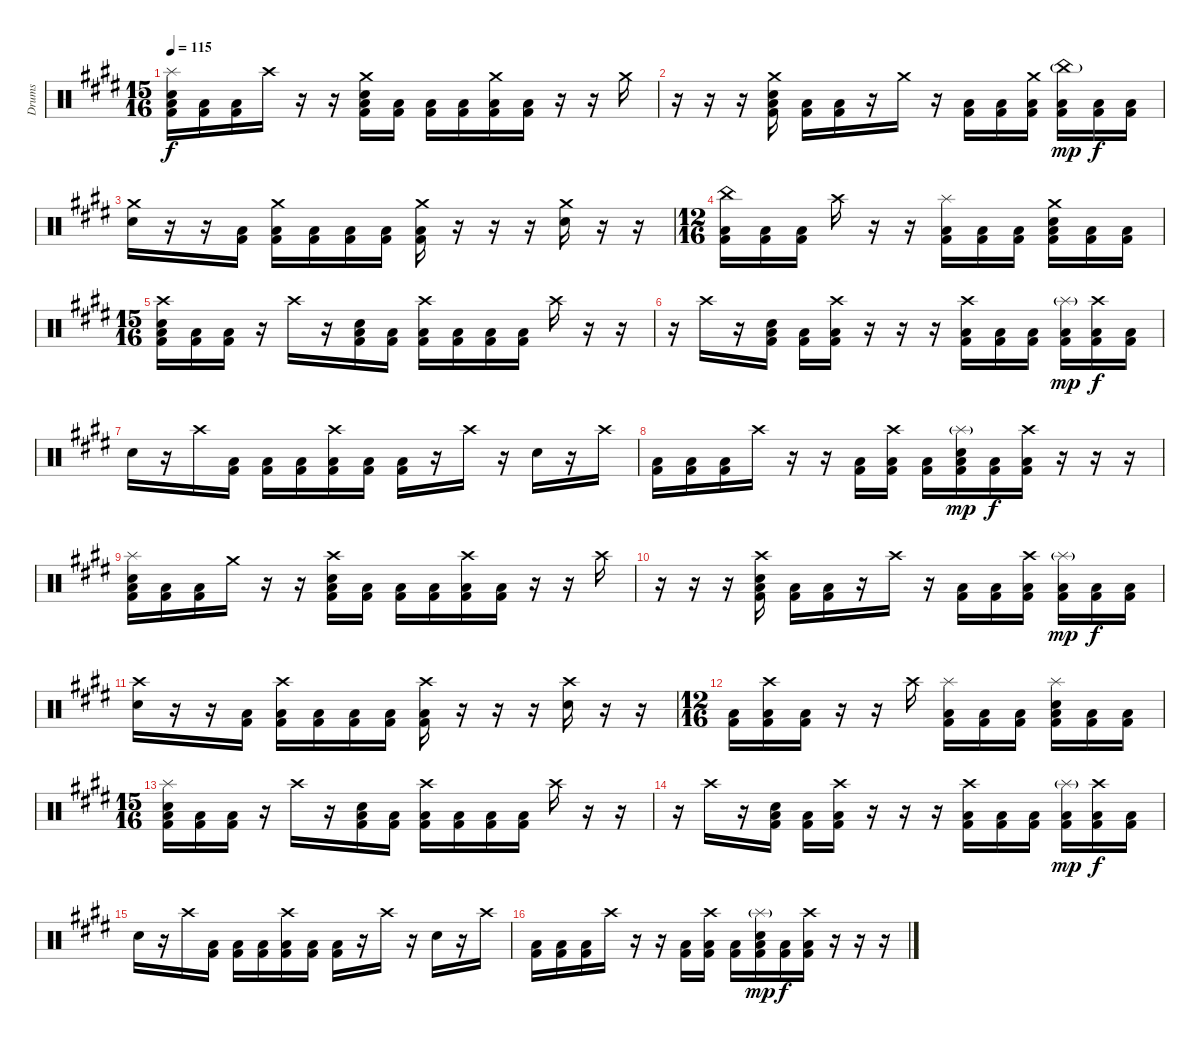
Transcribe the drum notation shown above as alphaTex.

\track ("Drums" "Drums") {instrument percussion}
\staff {score}
\articulation defaults
\ts (15 16)
\tempo 115
\clef neutral
\ks e
("Splash (hit)" "Snare (hit) 2" "Low Floor Tom (hit)" "Kick (hit) 2").16{dy f} ("Low Floor Tom (hit)" "Kick (hit) 2").16 ("Low Floor Tom (hit)" "Kick (hit) 2").16 "Crash high (hit)".16 r.16 r.16 ("Crash medium (hit)" "Snare (hit) 2" "Low Floor Tom (hit)" "Kick (hit) 2").16 ("Low Floor Tom (hit)" "Kick (hit) 2").16 ("Low Floor Tom (hit)" "Kick (hit) 2").16 ("Low Floor Tom (hit)" "Kick (hit) 2").16 ("Crash medium (hit)" "Low Floor Tom (hit)" "Kick (hit) 2").16 ("Low Floor Tom (hit)" "Kick (hit) 2").16 r.16 r.16 "Crash medium (hit)".16 |
r.16 r.16 r.16 ("Crash medium (hit)" "Snare (hit) 2" "Low Floor Tom (hit)" "Kick (hit) 2").16 ("Low Floor Tom (hit)" "Kick (hit) 2").16 ("Low Floor Tom (hit)" "Kick (hit) 2").16 r.16 "Crash medium (hit)".16 r.16 ("Low Floor Tom (hit)" "Kick (hit) 2").16 ("Low Floor Tom (hit)" "Kick (hit) 2").16 ("Crash medium (hit)" "Low Floor Tom (hit)" "Kick (hit) 2").16 ("China (hit)"{g} "Low Floor Tom (hit)" "Kick (hit) 2").16{dy mp} ("Low Floor Tom (hit)" "Kick (hit) 2").16{dy f} ("Low Floor Tom (hit)" "Kick (hit) 2").16 |
("Crash medium (hit)" "Snare (hit) 2").16 r.16 r.16 ("Low Floor Tom (hit)" "Kick (hit) 2").16 ("Crash medium (hit)" "Low Floor Tom (hit)" "Kick (hit) 2").16 ("Low Floor Tom (hit)" "Kick (hit) 2").16 ("Low Floor Tom (hit)" "Kick (hit) 2").16 ("Low Floor Tom (hit)" "Kick (hit) 2").16 ("Crash medium (hit)" "Low Floor Tom (hit)" "Kick (hit) 2").16 r.16 r.16 r.16 ("Crash medium (hit)" "Snare (hit) 2").16 r.16 r.16 |
\ts (12 16)
("China (hit)" "Low Floor Tom (hit)" "Kick (hit) 2").16 ("Low Floor Tom (hit)" "Kick (hit) 2").16 ("Low Floor Tom (hit)" "Kick (hit) 2").16 "Crash high (hit)".16 r.16 r.16 ("Splash (hit)" "Low Floor Tom (hit)" "Kick (hit) 2").16 ("Low Floor Tom (hit)" "Kick (hit) 2").16 ("Low Floor Tom (hit)" "Kick (hit) 2").16 ("Crash medium (hit)" "Snare (hit) 2" "Low Floor Tom (hit)" "Kick (hit) 2").16 ("Low Floor Tom (hit)" "Kick (hit) 2").16 ("Low Floor Tom (hit)" "Kick (hit) 2").16 |
\ts (15 16)
("Crash high (hit)" "Snare (hit) 2" "Low Floor Tom (hit)" "Kick (hit) 2").16 ("Low Floor Tom (hit)" "Kick (hit) 2").16 ("Low Floor Tom (hit)" "Kick (hit) 2").16 r.16 "Crash high (hit)".16 r.16 ("Snare (hit) 2" "Low Floor Tom (hit)" "Kick (hit) 2").16 ("Low Floor Tom (hit)" "Kick (hit) 2").16 ("Crash high (hit)" "Low Floor Tom (hit)" "Kick (hit) 2").16 ("Low Floor Tom (hit)" "Kick (hit) 2").16 ("Low Floor Tom (hit)" "Kick (hit) 2").16 ("Low Floor Tom (hit)" "Kick (hit) 2").16 "Crash high (hit)".16 r.16 r.16 |
r.16 "Crash high (hit)".16 r.16 ("Snare (hit) 2" "Low Floor Tom (hit)" "Kick (hit) 2").16 ("Low Floor Tom (hit)" "Kick (hit) 2").16 ("Crash high (hit)" "Low Floor Tom (hit)" "Kick (hit) 2").16 r.16 r.16 r.16 ("Crash high (hit)" "Low Floor Tom (hit)" "Kick (hit) 2").16 ("Low Floor Tom (hit)" "Kick (hit) 2").16 ("Low Floor Tom (hit)" "Kick (hit) 2").16 ("Splash (hit)"{g} "Low Floor Tom (hit)" "Kick (hit) 2").16{dy mp} ("Crash high (hit)" "Low Floor Tom (hit)" "Kick (hit) 2").16{dy f} ("Low Floor Tom (hit)" "Kick (hit) 2").16 |
"Snare (hit) 2".16 r.16 "Crash high (hit)".16 ("Low Floor Tom (hit)" "Kick (hit) 2").16 ("Low Floor Tom (hit)" "Kick (hit) 2").16 ("Low Floor Tom (hit)" "Kick (hit) 2").16 ("Crash high (hit)" "Low Floor Tom (hit)" "Kick (hit) 2").16 ("Low Floor Tom (hit)" "Kick (hit) 2").16 ("Low Floor Tom (hit)" "Kick (hit) 2").16 r.16 "Crash high (hit)".16 r.16 "Snare (hit) 2".16 r.16 "Crash high (hit)".16 |
("Low Floor Tom (hit)" "Kick (hit) 2").16 ("Low Floor Tom (hit)" "Kick (hit) 2").16 ("Low Floor Tom (hit)" "Kick (hit) 2").16 "Crash high (hit)".16 r.16 r.16 ("Low Floor Tom (hit)" "Kick (hit) 2").16 ("Crash high (hit)" "Low Floor Tom (hit)" "Kick (hit) 2").16 ("Low Floor Tom (hit)" "Kick (hit) 2").16 ("Splash (hit)"{g} "Snare (hit) 2" "Low Floor Tom (hit)" "Kick (hit) 2").16{dy mp} ("Low Floor Tom (hit)" "Kick (hit) 2").16{dy f} ("Crash high (hit)" "Low Floor Tom (hit)" "Kick (hit) 2").16 r.16 r.16 r.16 |
("Splash (hit)" "Snare (hit) 2" "Low Floor Tom (hit)" "Kick (hit) 2").16 ("Low Floor Tom (hit)" "Kick (hit) 2").16 ("Low Floor Tom (hit)" "Kick (hit) 2").16 "Crash medium (hit)".16 r.16 r.16 ("Crash high (hit)" "Snare (hit) 2" "Low Floor Tom (hit)" "Kick (hit) 2").16 ("Low Floor Tom (hit)" "Kick (hit) 2").16 ("Low Floor Tom (hit)" "Kick (hit) 2").16 ("Low Floor Tom (hit)" "Kick (hit) 2").16 ("Crash high (hit)" "Low Floor Tom (hit)" "Kick (hit) 2").16 ("Low Floor Tom (hit)" "Kick (hit) 2").16 r.16 r.16 "Crash high (hit)".16 |
r.16 r.16 r.16 ("Crash high (hit)" "Snare (hit) 2" "Low Floor Tom (hit)" "Kick (hit) 2").16 ("Low Floor Tom (hit)" "Kick (hit) 2").16 ("Low Floor Tom (hit)" "Kick (hit) 2").16 r.16 "Crash high (hit)".16 r.16 ("Low Floor Tom (hit)" "Kick (hit) 2").16 ("Low Floor Tom (hit)" "Kick (hit) 2").16 ("Crash high (hit)" "Low Floor Tom (hit)" "Kick (hit) 2").16 ("Splash (hit)"{g} "Low Floor Tom (hit)" "Kick (hit) 2").16{dy mp} ("Low Floor Tom (hit)" "Kick (hit) 2").16{dy f} ("Low Floor Tom (hit)" "Kick (hit) 2").16 |
("Crash high (hit)" "Snare (hit) 2").16 r.16 r.16 ("Low Floor Tom (hit)" "Kick (hit) 2").16 ("Crash high (hit)" "Low Floor Tom (hit)" "Kick (hit) 2").16 ("Low Floor Tom (hit)" "Kick (hit) 2").16 ("Low Floor Tom (hit)" "Kick (hit) 2").16 ("Low Floor Tom (hit)" "Kick (hit) 2").16 ("Crash high (hit)" "Low Floor Tom (hit)" "Kick (hit) 2").16 r.16 r.16 r.16 ("Crash high (hit)" "Snare (hit) 2").16 r.16 r.16 |
\ts (12 16)
("Low Floor Tom (hit)" "Kick (hit) 2").16 ("Crash high (hit)" "Low Floor Tom (hit)" "Kick (hit) 2").16 ("Low Floor Tom (hit)" "Kick (hit) 2").16 r.16 r.16 "Crash high (hit)".16 ("Splash (hit)" "Low Floor Tom (hit)" "Kick (hit) 2").16 ("Low Floor Tom (hit)" "Kick (hit) 2").16 ("Low Floor Tom (hit)" "Kick (hit) 2").16 ("Splash (hit)" "Snare (hit) 2" "Low Floor Tom (hit)" "Kick (hit) 2").16 ("Low Floor Tom (hit)" "Kick (hit) 2").16 ("Low Floor Tom (hit)" "Kick (hit) 2").16 |
\ts (15 16)
("Splash (hit)" "Snare (hit) 2" "Low Floor Tom (hit)" "Kick (hit) 2").16 ("Low Floor Tom (hit)" "Kick (hit) 2").16 ("Low Floor Tom (hit)" "Kick (hit) 2").16 r.16 "Crash high (hit)".16 r.16 ("Snare (hit) 2" "Low Floor Tom (hit)" "Kick (hit) 2").16 ("Low Floor Tom (hit)" "Kick (hit) 2").16 ("Crash high (hit)" "Low Floor Tom (hit)" "Kick (hit) 2").16 ("Low Floor Tom (hit)" "Kick (hit) 2").16 ("Low Floor Tom (hit)" "Kick (hit) 2").16 ("Low Floor Tom (hit)" "Kick (hit) 2").16 "Crash high (hit)".16 r.16 r.16 |
r.16 "Crash high (hit)".16 r.16 ("Snare (hit) 2" "Low Floor Tom (hit)" "Kick (hit) 2").16 ("Low Floor Tom (hit)" "Kick (hit) 2").16 ("Crash high (hit)" "Low Floor Tom (hit)" "Kick (hit) 2").16 r.16 r.16 r.16 ("Crash high (hit)" "Low Floor Tom (hit)" "Kick (hit) 2").16 ("Low Floor Tom (hit)" "Kick (hit) 2").16 ("Low Floor Tom (hit)" "Kick (hit) 2").16 ("Splash (hit)"{g} "Low Floor Tom (hit)" "Kick (hit) 2").16{dy mp} ("Crash high (hit)" "Low Floor Tom (hit)" "Kick (hit) 2").16{dy f} ("Low Floor Tom (hit)" "Kick (hit) 2").16 |
"Snare (hit) 2".16 r.16 "Crash high (hit)".16 ("Low Floor Tom (hit)" "Kick (hit) 2").16 ("Low Floor Tom (hit)" "Kick (hit) 2").16 ("Low Floor Tom (hit)" "Kick (hit) 2").16 ("Crash high (hit)" "Low Floor Tom (hit)" "Kick (hit) 2").16 ("Low Floor Tom (hit)" "Kick (hit) 2").16 ("Low Floor Tom (hit)" "Kick (hit) 2").16 r.16 "Crash high (hit)".16 r.16 "Snare (hit) 2".16 r.16 "Crash high (hit)".16 |
("Low Floor Tom (hit)" "Kick (hit) 2").16 ("Low Floor Tom (hit)" "Kick (hit) 2").16 ("Low Floor Tom (hit)" "Kick (hit) 2").16 "Crash high (hit)".16 r.16 r.16 ("Low Floor Tom (hit)" "Kick (hit) 2").16 ("Crash high (hit)" "Low Floor Tom (hit)" "Kick (hit) 2").16 ("Low Floor Tom (hit)" "Kick (hit) 2").16 ("Splash (hit)"{g} "Snare (hit) 2" "Low Floor Tom (hit)" "Kick (hit) 2").16{dy mp} ("Low Floor Tom (hit)" "Kick (hit) 2").16{dy f} ("Crash high (hit)" "Low Floor Tom (hit)" "Kick (hit) 2").16 r.16 r.16 r.16
